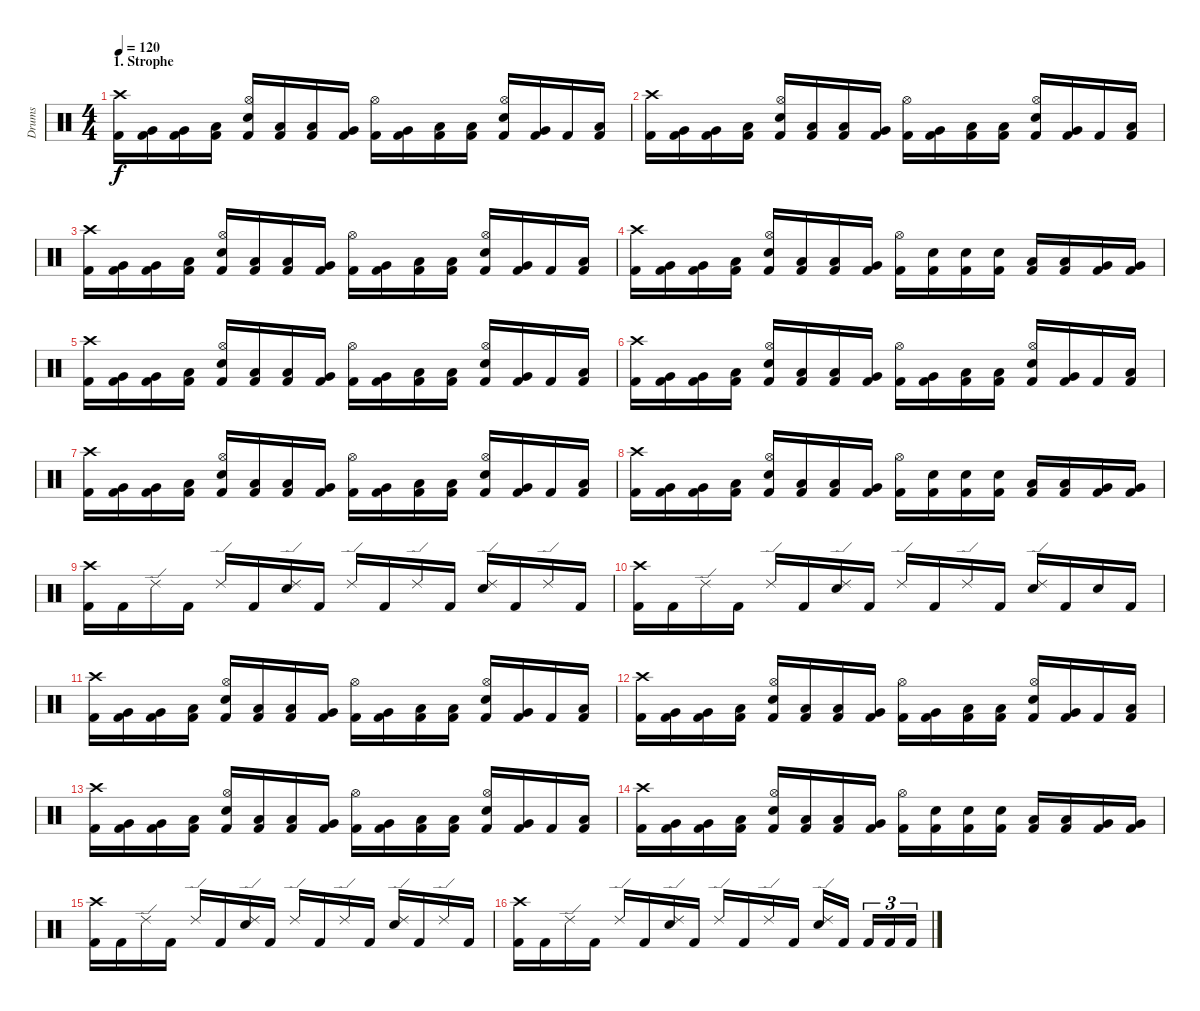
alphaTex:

\track ("Drums" "Drums") {instrument percussion}
\staff {score}
\articulation defaults
\ts (4 4)
\section ("" "1. Strophe")
\tempo 120
\clef neutral
\ks c
("Crash high (hit)" "Kick (hit) 2").16{dy f} ("Very Low Tom (hit)" "Kick (hit) 2").16 ("Very Low Tom (hit)" "Kick (hit) 2").16 ("Low Floor Tom (hit)" "Kick (hit) 2").16 ("Hi-Hat (open)" "Snare (hit) 2" "Kick (hit) 2").16 ("Low Tom (hit)" "Kick (hit) 2").16 ("Low Tom (hit)" "Kick (hit) 2").16 ("Very Low Tom (hit)" "Kick (hit) 2").16 ("Hi-Hat (open)" "Kick (hit) 2").16 ("Very Low Tom (hit)" "Kick (hit) 2").16 ("Low Floor Tom (hit)" "Kick (hit) 2").16 ("Low Floor Tom (hit)" "Kick (hit) 2").16 ("Hi-Hat (open)" "Snare (hit) 2" "Kick (hit) 2").16 ("Very Low Tom (hit)" "Kick (hit) 2").16 "Kick (hit) 2".16 ("Low Floor Tom (hit)" "Kick (hit) 2").16 |
("Crash high (hit)" "Kick (hit) 2").16 ("Very Low Tom (hit)" "Kick (hit) 2").16 ("Very Low Tom (hit)" "Kick (hit) 2").16 ("Low Floor Tom (hit)" "Kick (hit) 2").16 ("Hi-Hat (open)" "Snare (hit) 2" "Kick (hit) 2").16 ("Low Tom (hit)" "Kick (hit) 2").16 ("Low Tom (hit)" "Kick (hit) 2").16 ("Very Low Tom (hit)" "Kick (hit) 2").16 ("Hi-Hat (open)" "Kick (hit) 2").16 ("Very Low Tom (hit)" "Kick (hit) 2").16 ("Low Floor Tom (hit)" "Kick (hit) 2").16 ("Low Floor Tom (hit)" "Kick (hit) 2").16 ("Hi-Hat (open)" "Snare (hit) 2" "Kick (hit) 2").16 ("Very Low Tom (hit)" "Kick (hit) 2").16 "Kick (hit) 2".16 ("Low Floor Tom (hit)" "Kick (hit) 2").16 |
("Crash high (hit)" "Kick (hit) 2").16 ("Very Low Tom (hit)" "Kick (hit) 2").16 ("Very Low Tom (hit)" "Kick (hit) 2").16 ("Low Floor Tom (hit)" "Kick (hit) 2").16 ("Hi-Hat (open)" "Snare (hit) 2" "Kick (hit) 2").16 ("Low Tom (hit)" "Kick (hit) 2").16 ("Low Tom (hit)" "Kick (hit) 2").16 ("Very Low Tom (hit)" "Kick (hit) 2").16 ("Hi-Hat (open)" "Kick (hit) 2").16 ("Very Low Tom (hit)" "Kick (hit) 2").16 ("Low Floor Tom (hit)" "Kick (hit) 2").16 ("Low Floor Tom (hit)" "Kick (hit) 2").16 ("Hi-Hat (open)" "Snare (hit) 2" "Kick (hit) 2").16 ("Very Low Tom (hit)" "Kick (hit) 2").16 "Kick (hit) 2".16 ("Low Floor Tom (hit)" "Kick (hit) 2").16 |
("Crash high (hit)" "Kick (hit) 2").16 ("Very Low Tom (hit)" "Kick (hit) 2").16 ("Very Low Tom (hit)" "Kick (hit) 2").16 ("Low Floor Tom (hit)" "Kick (hit) 2").16 ("Hi-Hat (open)" "Snare (hit) 2" "Kick (hit) 2").16 ("Low Tom (hit)" "Kick (hit) 2").16 ("Low Tom (hit)" "Kick (hit) 2").16 ("Very Low Tom (hit)" "Kick (hit) 2").16 ("Hi-Hat (open)" "Kick (hit) 2").16 ("Snare (hit) 2" "Kick (hit) 2").16 ("Snare (hit) 2" "Kick (hit) 2").16 ("Snare (hit) 2" "Kick (hit) 2").16 ("Low Tom (hit)" "Kick (hit) 2").16 ("Low Tom (hit)" "Kick (hit) 2").16 ("Very Low Tom (hit)" "Kick (hit) 2").16 ("Very Low Tom (hit)" "Kick (hit) 2").16 |
("Crash high (hit)" "Kick (hit) 2").16 ("Very Low Tom (hit)" "Kick (hit) 2").16 ("Very Low Tom (hit)" "Kick (hit) 2").16 ("Low Floor Tom (hit)" "Kick (hit) 2").16 ("Hi-Hat (open)" "Snare (hit) 2" "Kick (hit) 2").16 ("Low Tom (hit)" "Kick (hit) 2").16 ("Low Tom (hit)" "Kick (hit) 2").16 ("Very Low Tom (hit)" "Kick (hit) 2").16 ("Hi-Hat (open)" "Kick (hit) 2").16 ("Very Low Tom (hit)" "Kick (hit) 2").16 ("Low Floor Tom (hit)" "Kick (hit) 2").16 ("Low Floor Tom (hit)" "Kick (hit) 2").16 ("Hi-Hat (open)" "Snare (hit) 2" "Kick (hit) 2").16 ("Very Low Tom (hit)" "Kick (hit) 2").16 "Kick (hit) 2".16 ("Low Floor Tom (hit)" "Kick (hit) 2").16 |
("Crash high (hit)" "Kick (hit) 2").16 ("Very Low Tom (hit)" "Kick (hit) 2").16 ("Very Low Tom (hit)" "Kick (hit) 2").16 ("Low Floor Tom (hit)" "Kick (hit) 2").16 ("Hi-Hat (open)" "Snare (hit) 2" "Kick (hit) 2").16 ("Low Tom (hit)" "Kick (hit) 2").16 ("Low Tom (hit)" "Kick (hit) 2").16 ("Very Low Tom (hit)" "Kick (hit) 2").16 ("Hi-Hat (open)" "Kick (hit) 2").16 ("Very Low Tom (hit)" "Kick (hit) 2").16 ("Low Floor Tom (hit)" "Kick (hit) 2").16 ("Low Floor Tom (hit)" "Kick (hit) 2").16 ("Hi-Hat (open)" "Snare (hit) 2" "Kick (hit) 2").16 ("Very Low Tom (hit)" "Kick (hit) 2").16 "Kick (hit) 2".16 ("Low Floor Tom (hit)" "Kick (hit) 2").16 |
("Crash high (hit)" "Kick (hit) 2").16 ("Very Low Tom (hit)" "Kick (hit) 2").16 ("Very Low Tom (hit)" "Kick (hit) 2").16 ("Low Floor Tom (hit)" "Kick (hit) 2").16 ("Hi-Hat (open)" "Snare (hit) 2" "Kick (hit) 2").16 ("Low Tom (hit)" "Kick (hit) 2").16 ("Low Tom (hit)" "Kick (hit) 2").16 ("Very Low Tom (hit)" "Kick (hit) 2").16 ("Hi-Hat (open)" "Kick (hit) 2").16 ("Very Low Tom (hit)" "Kick (hit) 2").16 ("Low Floor Tom (hit)" "Kick (hit) 2").16 ("Low Floor Tom (hit)" "Kick (hit) 2").16 ("Hi-Hat (open)" "Snare (hit) 2" "Kick (hit) 2").16 ("Very Low Tom (hit)" "Kick (hit) 2").16 "Kick (hit) 2".16 ("Low Floor Tom (hit)" "Kick (hit) 2").16 |
("Crash high (hit)" "Kick (hit) 2").16 ("Very Low Tom (hit)" "Kick (hit) 2").16 ("Very Low Tom (hit)" "Kick (hit) 2").16 ("Low Floor Tom (hit)" "Kick (hit) 2").16 ("Hi-Hat (open)" "Snare (hit) 2" "Kick (hit) 2").16 ("Low Tom (hit)" "Kick (hit) 2").16 ("Low Tom (hit)" "Kick (hit) 2").16 ("Very Low Tom (hit)" "Kick (hit) 2").16 ("Hi-Hat (open)" "Kick (hit) 2").16 ("Snare (hit) 2" "Kick (hit) 2").16 ("Snare (hit) 2" "Kick (hit) 2").16 ("Snare (hit) 2" "Kick (hit) 2").16 ("Low Tom (hit)" "Kick (hit) 2").16 ("Low Tom (hit)" "Kick (hit) 2").16 ("Very Low Tom (hit)" "Kick (hit) 2").16 ("Very Low Tom (hit)" "Kick (hit) 2").16 |
("Crash high (hit)" "Kick (hit) 2").16 "Kick (hit) 2".16 "Ride (edge) 2".16 "Kick (hit) 2".16 "Ride (edge) 2".16 "Kick (hit) 2".16 ("Ride (edge) 2" "Snare (hit) 2").16 "Kick (hit) 2".16 "Ride (edge) 2".16 "Kick (hit) 2".16 "Ride (edge) 2".16 "Kick (hit) 2".16 ("Ride (edge) 2" "Snare (hit) 2").16 "Kick (hit) 2".16 "Ride (edge) 2".16 "Kick (hit) 2".16 |
("Crash high (hit)" "Kick (hit) 2").16 "Kick (hit) 2".16 "Ride (edge) 2".16 "Kick (hit) 2".16 "Ride (edge) 2".16 "Kick (hit) 2".16 ("Ride (edge) 2" "Snare (hit) 2").16 "Kick (hit) 2".16 "Ride (edge) 2".16 "Kick (hit) 2".16 "Ride (edge) 2".16 "Kick (hit) 2".16 ("Ride (edge) 2" "Snare (hit) 2").16 "Kick (hit) 2".16 "Snare (hit) 2".16 "Kick (hit) 2".16 |
("Crash high (hit)" "Kick (hit) 2").16 ("Very Low Tom (hit)" "Kick (hit) 2").16 ("Very Low Tom (hit)" "Kick (hit) 2").16 ("Low Floor Tom (hit)" "Kick (hit) 2").16 ("Hi-Hat (open)" "Snare (hit) 2" "Kick (hit) 2").16 ("Low Tom (hit)" "Kick (hit) 2").16 ("Low Tom (hit)" "Kick (hit) 2").16 ("Very Low Tom (hit)" "Kick (hit) 2").16 ("Hi-Hat (open)" "Kick (hit) 2").16 ("Very Low Tom (hit)" "Kick (hit) 2").16 ("Low Floor Tom (hit)" "Kick (hit) 2").16 ("Low Floor Tom (hit)" "Kick (hit) 2").16 ("Hi-Hat (open)" "Snare (hit) 2" "Kick (hit) 2").16 ("Very Low Tom (hit)" "Kick (hit) 2").16 "Kick (hit) 2".16 ("Low Floor Tom (hit)" "Kick (hit) 2").16 |
("Crash high (hit)" "Kick (hit) 2").16 ("Very Low Tom (hit)" "Kick (hit) 2").16 ("Very Low Tom (hit)" "Kick (hit) 2").16 ("Low Floor Tom (hit)" "Kick (hit) 2").16 ("Hi-Hat (open)" "Snare (hit) 2" "Kick (hit) 2").16 ("Low Tom (hit)" "Kick (hit) 2").16 ("Low Tom (hit)" "Kick (hit) 2").16 ("Very Low Tom (hit)" "Kick (hit) 2").16 ("Hi-Hat (open)" "Kick (hit) 2").16 ("Very Low Tom (hit)" "Kick (hit) 2").16 ("Low Floor Tom (hit)" "Kick (hit) 2").16 ("Low Floor Tom (hit)" "Kick (hit) 2").16 ("Hi-Hat (open)" "Snare (hit) 2" "Kick (hit) 2").16 ("Very Low Tom (hit)" "Kick (hit) 2").16 "Kick (hit) 2".16 ("Low Floor Tom (hit)" "Kick (hit) 2").16 |
("Crash high (hit)" "Kick (hit) 2").16 ("Very Low Tom (hit)" "Kick (hit) 2").16 ("Very Low Tom (hit)" "Kick (hit) 2").16 ("Low Floor Tom (hit)" "Kick (hit) 2").16 ("Hi-Hat (open)" "Snare (hit) 2" "Kick (hit) 2").16 ("Low Tom (hit)" "Kick (hit) 2").16 ("Low Tom (hit)" "Kick (hit) 2").16 ("Very Low Tom (hit)" "Kick (hit) 2").16 ("Hi-Hat (open)" "Kick (hit) 2").16 ("Very Low Tom (hit)" "Kick (hit) 2").16 ("Low Floor Tom (hit)" "Kick (hit) 2").16 ("Low Floor Tom (hit)" "Kick (hit) 2").16 ("Hi-Hat (open)" "Snare (hit) 2" "Kick (hit) 2").16 ("Very Low Tom (hit)" "Kick (hit) 2").16 "Kick (hit) 2".16 ("Low Floor Tom (hit)" "Kick (hit) 2").16 |
("Crash high (hit)" "Kick (hit) 2").16 ("Very Low Tom (hit)" "Kick (hit) 2").16 ("Very Low Tom (hit)" "Kick (hit) 2").16 ("Low Floor Tom (hit)" "Kick (hit) 2").16 ("Hi-Hat (open)" "Snare (hit) 2" "Kick (hit) 2").16 ("Low Tom (hit)" "Kick (hit) 2").16 ("Low Tom (hit)" "Kick (hit) 2").16 ("Very Low Tom (hit)" "Kick (hit) 2").16 ("Hi-Hat (open)" "Kick (hit) 2").16 ("Snare (hit) 2" "Kick (hit) 2").16 ("Snare (hit) 2" "Kick (hit) 2").16 ("Snare (hit) 2" "Kick (hit) 2").16 ("Low Tom (hit)" "Kick (hit) 2").16 ("Low Tom (hit)" "Kick (hit) 2").16 ("Very Low Tom (hit)" "Kick (hit) 2").16 ("Very Low Tom (hit)" "Kick (hit) 2").16 |
("Crash high (hit)" "Kick (hit) 2").16 "Kick (hit) 2".16 "Ride (edge) 2".16 "Kick (hit) 2".16 "Ride (edge) 2".16 "Kick (hit) 2".16 ("Ride (edge) 2" "Snare (hit) 2").16 "Kick (hit) 2".16 "Ride (edge) 2".16 "Kick (hit) 2".16 "Ride (edge) 2".16 "Kick (hit) 2".16 ("Ride (edge) 2" "Snare (hit) 2").16 "Kick (hit) 2".16 "Ride (edge) 2".16 "Kick (hit) 2".16 |
("Crash high (hit)" "Kick (hit) 2").16 "Kick (hit) 2".16 "Ride (edge) 2".16 "Kick (hit) 2".16 "Ride (edge) 2".16 "Kick (hit) 2".16 ("Ride (edge) 2" "Snare (hit) 2").16 "Kick (hit) 2".16 "Ride (edge) 2".16 "Kick (hit) 2".16 "Ride (edge) 2".16 "Kick (hit) 2".16 ("Ride (edge) 2" "Snare (hit) 2").16 "Kick (hit) 2".16 "Kick (hit) 2".16{tu (3 2)} "Kick (hit) 2".16{tu (3 2)} "Kick (hit) 2".16{tu (3 2)}
